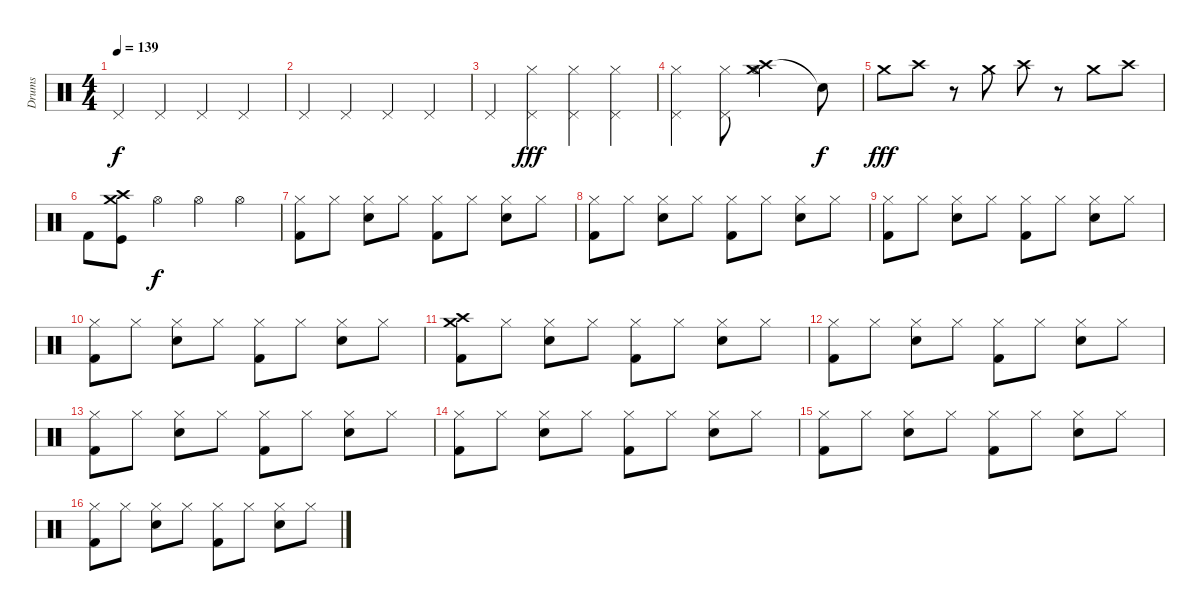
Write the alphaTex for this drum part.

\track ("Drums" "Drums") {instrument percussion}
\staff {score}
\articulation defaults
\ts (4 4)
\tempo 139
\clef neutral
\ks c "Pedal Hi-Hat (hit)".4{dy f} "Pedal Hi-Hat (hit)".4 "Pedal Hi-Hat (hit)".4 "Pedal Hi-Hat (hit)".4
|
"Pedal Hi-Hat (hit)".4 "Pedal Hi-Hat (hit)".4 "Pedal Hi-Hat (hit)".4 "Pedal Hi-Hat (hit)".4 |
"Pedal Hi-Hat (hit)".4 ("Pedal Hi-Hat (hit)" "Hi-Hat (closed)").4{dy fff} ("Pedal Hi-Hat (hit)" "Hi-Hat (closed)").4 ("Pedal Hi-Hat (hit)" "Hi-Hat (closed)").4 |
("Pedal Hi-Hat (hit)" "Hi-Hat (closed)").4 ("Pedal Hi-Hat (hit)" "Hi-Hat (closed)").8 ("Crash high (hit)" "Hi-Hat (open)" "Crash medium (hit)").2 "Snare (hit)"{t}.8{dy f} |
"Crash medium (hit)".8{dy fff} "Crash high (hit)".8 r.8 "Crash medium (hit)".8 "Crash high (hit)".8 r.8 "Crash medium (hit)".8 "Crash high (hit)".8 |
"Kick (hit) 2".8{volume 12} ("Crash high (hit)" "Kick (hit)" "Crash medium (hit)").8 "Hi-Hat (open)".4{dy f} "Hi-Hat (open)".4 "Hi-Hat (open)".4 |
("Hi-Hat (closed)" "Kick (hit) 2").8 "Hi-Hat (closed)".8 ("Hi-Hat (closed)" "Snare (hit) 2").8 "Hi-Hat (closed)".8 ("Hi-Hat (closed)" "Kick (hit) 2").8 "Hi-Hat (closed)".8 ("Hi-Hat (closed)" "Snare (hit) 2").8 "Hi-Hat (closed)".8 |
("Hi-Hat (closed)" "Kick (hit) 2").8 "Hi-Hat (closed)".8 ("Hi-Hat (closed)" "Snare (hit) 2").8 "Hi-Hat (closed)".8 ("Hi-Hat (closed)" "Kick (hit) 2").8 "Hi-Hat (closed)".8 ("Hi-Hat (closed)" "Snare (hit) 2").8 "Hi-Hat (closed)".8 |
("Hi-Hat (closed)" "Kick (hit) 2").8 "Hi-Hat (closed)".8 ("Hi-Hat (closed)" "Snare (hit) 2").8 "Hi-Hat (closed)".8 ("Hi-Hat (closed)" "Kick (hit) 2").8 "Hi-Hat (closed)".8 ("Hi-Hat (closed)" "Snare (hit) 2").8 "Hi-Hat (closed)".8 |
("Hi-Hat (closed)" "Kick (hit) 2").8 "Hi-Hat (closed)".8 ("Hi-Hat (closed)" "Snare (hit) 2").8 "Hi-Hat (closed)".8 ("Hi-Hat (closed)" "Kick (hit) 2").8 "Hi-Hat (closed)".8 ("Hi-Hat (closed)" "Snare (hit) 2").8 "Hi-Hat (closed)".8 |
("Crash medium (hit)" "Crash high (hit)" "Kick (hit) 2").8 "Hi-Hat (closed)".8 ("Hi-Hat (closed)" "Snare (hit) 2").8 "Hi-Hat (closed)".8 ("Hi-Hat (closed)" "Kick (hit) 2").8 "Hi-Hat (closed)".8 ("Hi-Hat (closed)" "Snare (hit) 2").8 "Hi-Hat (closed)".8 |
("Hi-Hat (closed)" "Kick (hit) 2").8 "Hi-Hat (closed)".8 ("Hi-Hat (closed)" "Snare (hit) 2").8 "Hi-Hat (closed)".8 ("Hi-Hat (closed)" "Kick (hit) 2").8 "Hi-Hat (closed)".8 ("Hi-Hat (closed)" "Snare (hit) 2").8 "Hi-Hat (closed)".8 |
("Hi-Hat (closed)" "Kick (hit) 2").8 "Hi-Hat (closed)".8 ("Hi-Hat (closed)" "Snare (hit) 2").8 "Hi-Hat (closed)".8 ("Hi-Hat (closed)" "Kick (hit) 2").8 "Hi-Hat (closed)".8 ("Hi-Hat (closed)" "Snare (hit) 2").8 "Hi-Hat (closed)".8 |
("Hi-Hat (closed)" "Kick (hit) 2").8 "Hi-Hat (closed)".8 ("Hi-Hat (closed)" "Snare (hit) 2").8 "Hi-Hat (closed)".8 ("Hi-Hat (closed)" "Kick (hit) 2").8 "Hi-Hat (closed)".8 ("Hi-Hat (closed)" "Snare (hit) 2").8 "Hi-Hat (closed)".8 |
("Hi-Hat (closed)" "Kick (hit) 2").8 "Hi-Hat (closed)".8 ("Hi-Hat (closed)" "Snare (hit) 2").8 "Hi-Hat (closed)".8 ("Hi-Hat (closed)" "Kick (hit) 2").8 "Hi-Hat (closed)".8 ("Hi-Hat (closed)" "Snare (hit) 2").8 "Hi-Hat (closed)".8 |
("Hi-Hat (closed)" "Kick (hit) 2").8 "Hi-Hat (closed)".8 ("Hi-Hat (closed)" "Snare (hit) 2").8 "Hi-Hat (closed)".8 ("Hi-Hat (closed)" "Kick (hit) 2").8 "Hi-Hat (closed)".8 ("Hi-Hat (closed)" "Snare (hit) 2").8 "Hi-Hat (closed)".8
